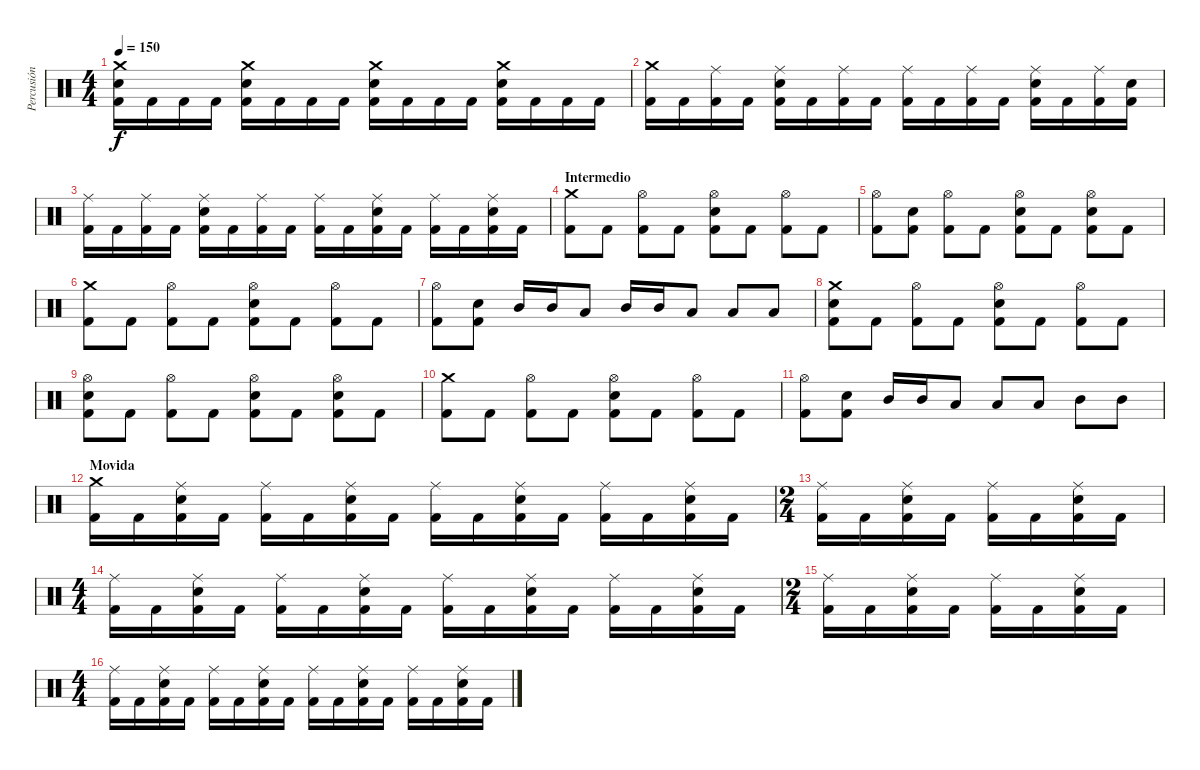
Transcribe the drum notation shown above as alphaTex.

\track ("Percusión" "Percusión") {instrument percussion}
\staff {score}
\articulation defaults
\ts (4 4)
\tempo 150
\clef neutral
\ks c
("Crash medium (hit)" "Kick (hit) 2" "Snare (hit) 2").16{dy f} "Kick (hit) 2".16 "Kick (hit) 2".16 "Kick (hit) 2".16 ("Crash medium (hit)" "Kick (hit) 2" "Snare (hit) 2").16 "Kick (hit) 2".16 "Kick (hit) 2".16 "Kick (hit) 2".16 ("Crash medium (hit)" "Kick (hit) 2" "Snare (hit) 2").16 "Kick (hit) 2".16 "Kick (hit) 2".16 "Kick (hit) 2".16 ("Crash medium (hit)" "Kick (hit) 2" "Snare (hit) 2").16 "Kick (hit) 2".16 "Kick (hit) 2".16 "Kick (hit) 2".16 |
("Crash medium (hit)" "Kick (hit) 2").16 "Kick (hit) 2".16 ("Ride (middle)" "Kick (hit) 2").16 "Kick (hit) 2".16 ("Ride (middle)" "Kick (hit) 2" "Snare (hit) 2").16 "Kick (hit) 2".16 ("Ride (middle)" "Kick (hit) 2").16 "Kick (hit) 2".16 ("Ride (middle)" "Kick (hit) 2").16 "Kick (hit) 2".16 ("Ride (middle)" "Kick (hit) 2").16 "Kick (hit) 2".16 ("Ride (middle)" "Kick (hit) 2" "Snare (hit) 2").16 "Kick (hit) 2".16 ("Ride (middle)" "Kick (hit) 2").16 ("Kick (hit) 2" "Snare (hit) 2").16 |
("Ride (middle)" "Kick (hit) 2").16 "Kick (hit) 2".16 ("Ride (middle)" "Kick (hit) 2").16 "Kick (hit) 2".16 ("Ride (middle)" "Kick (hit) 2" "Snare (hit) 2").16 "Kick (hit) 2".16 ("Ride (middle)" "Kick (hit) 2").16 "Kick (hit) 2".16 ("Ride (middle)" "Kick (hit) 2").16 "Kick (hit) 2".16 ("Ride (middle)" "Kick (hit) 2" "Snare (hit) 2").16 "Kick (hit) 2".16 ("Ride (middle)" "Kick (hit) 2").16 "Kick (hit) 2".16 ("Ride (middle)" "Kick (hit) 2" "Snare (hit) 2").16 "Kick (hit) 2".16 |
\section ("" "Intermedio")
("Crash medium (hit)" "Kick (hit) 2").8 "Kick (hit) 2".8 ("Hi-Hat (open)" "Kick (hit) 2").8 "Kick (hit) 2".8 ("Hi-Hat (open)" "Kick (hit) 2" "Snare (hit) 2").8 "Kick (hit) 2".8 ("Hi-Hat (open)" "Kick (hit) 2").8 "Kick (hit) 2".8 |
("Hi-Hat (open)" "Kick (hit) 2").8 ("Kick (hit) 2" "Snare (hit) 2").8 ("Hi-Hat (open)" "Kick (hit) 2").8 "Kick (hit) 2".8 ("Hi-Hat (open)" "Kick (hit) 2" "Snare (hit) 2").8 "Kick (hit) 2".8 ("Hi-Hat (open)" "Kick (hit) 2" "Snare (hit) 2").8 "Kick (hit) 2".8 |
("Crash medium (hit)" "Kick (hit) 2").8 "Kick (hit) 2".8 ("Hi-Hat (open)" "Kick (hit) 2").8 "Kick (hit) 2".8 ("Hi-Hat (open)" "Kick (hit) 2" "Snare (hit) 2").8 "Kick (hit) 2".8 ("Hi-Hat (open)" "Kick (hit) 2").8 "Kick (hit) 2".8 |
("Hi-Hat (open)" "Kick (hit) 2").8 ("Kick (hit) 2" "Snare (hit) 2").8 "Mid Tom (hit)".16 "Mid Tom (hit)".16 "Low Tom (hit)".8 "Mid Tom (hit)".16 "Mid Tom (hit)".16 "Low Tom (hit)".8 "Low Tom (hit)".8 "Low Tom (hit)".8 |
("Crash medium (hit)" "Kick (hit) 2" "Snare (hit) 2").8 "Kick (hit) 2".8 ("Hi-Hat (open)" "Kick (hit) 2").8 "Kick (hit) 2".8 ("Hi-Hat (open)" "Kick (hit) 2" "Snare (hit) 2").8 "Kick (hit) 2".8 ("Hi-Hat (open)" "Kick (hit) 2").8 "Kick (hit) 2".8 |
("Hi-Hat (open)" "Kick (hit) 2" "Snare (hit) 2").8 "Kick (hit) 2".8 ("Hi-Hat (open)" "Kick (hit) 2").8 "Kick (hit) 2".8 ("Hi-Hat (open)" "Kick (hit) 2" "Snare (hit) 2").8 "Kick (hit) 2".8 ("Hi-Hat (open)" "Kick (hit) 2" "Snare (hit) 2").8 "Kick (hit) 2".8 |
("Crash medium (hit)" "Kick (hit) 2").8 "Kick (hit) 2".8 ("Hi-Hat (open)" "Kick (hit) 2").8 "Kick (hit) 2".8 ("Hi-Hat (open)" "Kick (hit) 2" "Snare (hit) 2").8 "Kick (hit) 2".8 ("Hi-Hat (open)" "Kick (hit) 2").8 "Kick (hit) 2".8 |
("Hi-Hat (open)" "Kick (hit) 2").8 ("Kick (hit) 2" "Snare (hit) 2").8 "Mid Tom (hit)".16 "Mid Tom (hit)".16 "Low Tom (hit)".8 "Low Tom (hit)".8 "Low Tom (hit)".8 "Mid Tom (hit)".8 "Mid Tom (hit)".8 |
\section ("" "Movida")
("Crash medium (hit)" "Kick (hit) 2").16 "Kick (hit) 2".16 ("Ride (middle)" "Kick (hit) 2" "Snare (hit) 2").16 "Kick (hit) 2".16 ("Ride (middle)" "Kick (hit) 2").16 "Kick (hit) 2".16 ("Ride (middle)" "Kick (hit) 2" "Snare (hit) 2").16 "Kick (hit) 2".16 ("Ride (middle)" "Kick (hit) 2").16 "Kick (hit) 2".16 ("Ride (middle)" "Kick (hit) 2" "Snare (hit) 2").16 "Kick (hit) 2".16 ("Ride (middle)" "Kick (hit) 2").16 "Kick (hit) 2".16 ("Ride (middle)" "Kick (hit) 2" "Snare (hit) 2").16 "Kick (hit) 2".16 |
\ts (2 4)
("Ride (middle)" "Kick (hit) 2").16 "Kick (hit) 2".16 ("Ride (middle)" "Kick (hit) 2" "Snare (hit) 2").16 "Kick (hit) 2".16 ("Ride (middle)" "Kick (hit) 2").16 "Kick (hit) 2".16 ("Ride (middle)" "Kick (hit) 2" "Snare (hit) 2").16 "Kick (hit) 2".16 |
\ts (4 4)
("Ride (middle)" "Kick (hit) 2").16 "Kick (hit) 2".16 ("Ride (middle)" "Kick (hit) 2" "Snare (hit) 2").16 "Kick (hit) 2".16 ("Ride (middle)" "Kick (hit) 2").16 "Kick (hit) 2".16 ("Ride (middle)" "Kick (hit) 2" "Snare (hit) 2").16 "Kick (hit) 2".16 ("Ride (middle)" "Kick (hit) 2").16 "Kick (hit) 2".16 ("Ride (middle)" "Kick (hit) 2" "Snare (hit) 2").16 "Kick (hit) 2".16 ("Ride (middle)" "Kick (hit) 2").16 "Kick (hit) 2".16 ("Ride (middle)" "Kick (hit) 2" "Snare (hit) 2").16 "Kick (hit) 2".16 |
\ts (2 4)
("Ride (middle)" "Kick (hit) 2").16 "Kick (hit) 2".16 ("Ride (middle)" "Kick (hit) 2" "Snare (hit) 2").16 "Kick (hit) 2".16 ("Ride (middle)" "Kick (hit) 2").16 "Kick (hit) 2".16 ("Ride (middle)" "Kick (hit) 2" "Snare (hit) 2").16 "Kick (hit) 2".16 |
\ts (4 4)
("Ride (middle)" "Kick (hit) 2").16 "Kick (hit) 2".16 ("Ride (middle)" "Kick (hit) 2" "Snare (hit) 2").16 "Kick (hit) 2".16 ("Ride (middle)" "Kick (hit) 2").16 "Kick (hit) 2".16 ("Ride (middle)" "Kick (hit) 2" "Snare (hit) 2").16 "Kick (hit) 2".16 ("Ride (middle)" "Kick (hit) 2").16 "Kick (hit) 2".16 ("Ride (middle)" "Kick (hit) 2" "Snare (hit) 2").16 "Kick (hit) 2".16 ("Ride (middle)" "Kick (hit) 2").16 "Kick (hit) 2".16 ("Ride (middle)" "Kick (hit) 2" "Snare (hit) 2").16 "Kick (hit) 2".16
